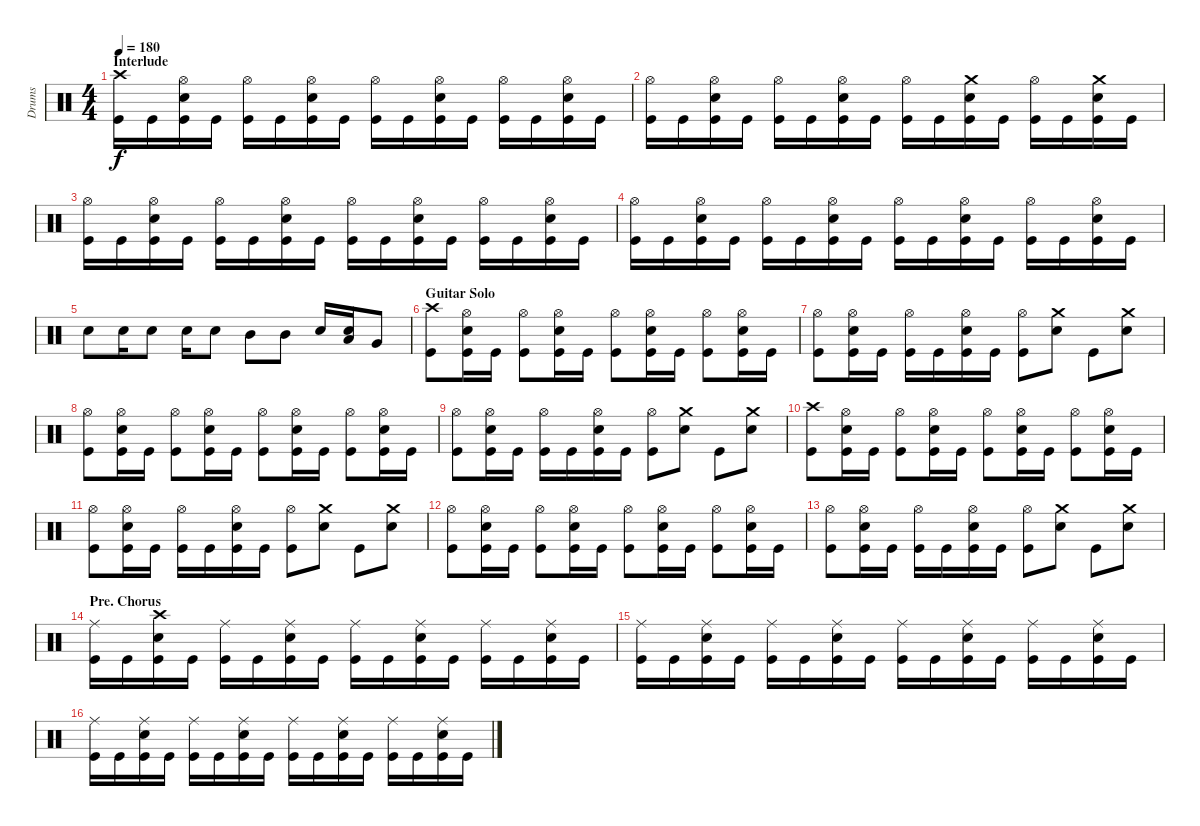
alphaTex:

\track ("Drums" "Drums") {instrument percussion}
\staff {score}
\articulation defaults
\ts (4 4)
\section ("" "Interlude")
\tempo 180
\clef neutral
\ks c
("Crash high (hit)" "Kick (hit)").16{dy f} "Kick (hit)".16 ("Hi-Hat (open)" "Electric Snare (hit)" "Kick (hit)").16 "Kick (hit)".16 ("Hi-Hat (open)" "Kick (hit)").16 "Kick (hit)".16 ("Hi-Hat (open)" "Electric Snare (hit)" "Kick (hit)").16 "Kick (hit)".16 ("Hi-Hat (open)" "Kick (hit)").16 "Kick (hit)".16 ("Hi-Hat (open)" "Electric Snare (hit)" "Kick (hit)").16 "Kick (hit)".16 ("Hi-Hat (open)" "Kick (hit)").16 "Kick (hit)".16 ("Hi-Hat (open)" "Electric Snare (hit)" "Kick (hit)").16 "Kick (hit)".16 |
("Hi-Hat (open)" "Kick (hit)").16 "Kick (hit)".16 ("Hi-Hat (open)" "Electric Snare (hit)" "Kick (hit)").16 "Kick (hit)".16 ("Hi-Hat (open)" "Kick (hit)").16 "Kick (hit)".16 ("Hi-Hat (open)" "Electric Snare (hit)" "Kick (hit)").16 "Kick (hit)".16 ("Hi-Hat (open)" "Kick (hit)").16 "Kick (hit)".16 ("Crash medium (hit)" "Electric Snare (hit)" "Kick (hit)").16 "Kick (hit)".16 ("Hi-Hat (open)" "Kick (hit)").16 "Kick (hit)".16 ("Crash medium (hit)" "Electric Snare (hit)" "Kick (hit)").16 "Kick (hit)".16 |
("Hi-Hat (open)" "Kick (hit)").16 "Kick (hit)".16 ("Hi-Hat (open)" "Electric Snare (hit)" "Kick (hit)").16 "Kick (hit)".16 ("Hi-Hat (open)" "Kick (hit)").16 "Kick (hit)".16 ("Hi-Hat (open)" "Electric Snare (hit)" "Kick (hit)").16 "Kick (hit)".16 ("Hi-Hat (open)" "Kick (hit)").16 "Kick (hit)".16 ("Hi-Hat (open)" "Electric Snare (hit)" "Kick (hit)").16 "Kick (hit)".16 ("Hi-Hat (open)" "Kick (hit)").16 "Kick (hit)".16 ("Hi-Hat (open)" "Electric Snare (hit)" "Kick (hit)").16 "Kick (hit)".16 |
("Hi-Hat (open)" "Kick (hit)").16 "Kick (hit)".16 ("Hi-Hat (open)" "Electric Snare (hit)" "Kick (hit)").16 "Kick (hit)".16 ("Hi-Hat (open)" "Kick (hit)").16 "Kick (hit)".16 ("Hi-Hat (open)" "Electric Snare (hit)" "Kick (hit)").16 "Kick (hit)".16 ("Hi-Hat (open)" "Kick (hit)").16 "Kick (hit)".16 ("Hi-Hat (open)" "Electric Snare (hit)" "Kick (hit)").16 "Kick (hit)".16 ("Hi-Hat (open)" "Kick (hit)").16 "Kick (hit)".16 ("Hi-Hat (open)" "Electric Snare (hit)" "Kick (hit)").16 "Kick (hit)".16 |
"Electric Snare (hit)".8 "Electric Snare (hit)".16 "Electric Snare (hit)".8 "Electric Snare (hit)".16 "Electric Snare (hit)".8 "Mid Tom (hit)".8 "Mid Tom (hit)".8 "Electric Snare (hit)".16 ("Low Tom (hit)" "Electric Snare (hit)").16 "Very Low Tom (hit)".8 |
\section ("" "Guitar Solo")
("Crash high (hit)" "Kick (hit)").8 ("Hi-Hat (open)" "Electric Snare (hit)" "Kick (hit)").16 "Kick (hit)".16 ("Hi-Hat (open)" "Kick (hit)").8 ("Hi-Hat (open)" "Electric Snare (hit)" "Kick (hit)").16 "Kick (hit)".16 ("Hi-Hat (open)" "Kick (hit)").8 ("Hi-Hat (open)" "Electric Snare (hit)" "Kick (hit)").16 "Kick (hit)".16 ("Hi-Hat (open)" "Kick (hit)").8 ("Hi-Hat (open)" "Electric Snare (hit)" "Kick (hit)").16 "Kick (hit)".16 |
("Hi-Hat (open)" "Kick (hit)").8 ("Hi-Hat (open)" "Electric Snare (hit)" "Kick (hit)").16 "Kick (hit)".16 ("Hi-Hat (open)" "Kick (hit)").16 "Kick (hit)".16 ("Hi-Hat (open)" "Electric Snare (hit)" "Kick (hit)").16 "Kick (hit)".16 ("Hi-Hat (open)" "Kick (hit)").8 ("Crash medium (hit)" "Electric Snare (hit)").8 "Kick (hit)".8 ("Crash medium (hit)" "Electric Snare (hit)").8 |
("Hi-Hat (open)" "Kick (hit)").8 ("Hi-Hat (open)" "Electric Snare (hit)" "Kick (hit)").16 "Kick (hit)".16 ("Hi-Hat (open)" "Kick (hit)").8 ("Hi-Hat (open)" "Electric Snare (hit)" "Kick (hit)").16 "Kick (hit)".16 ("Hi-Hat (open)" "Kick (hit)").8 ("Hi-Hat (open)" "Electric Snare (hit)" "Kick (hit)").16 "Kick (hit)".16 ("Hi-Hat (open)" "Kick (hit)").8 ("Hi-Hat (open)" "Electric Snare (hit)" "Kick (hit)").16 "Kick (hit)".16 |
("Hi-Hat (open)" "Kick (hit)").8 ("Hi-Hat (open)" "Electric Snare (hit)" "Kick (hit)").16 "Kick (hit)".16 ("Hi-Hat (open)" "Kick (hit)").16 "Kick (hit)".16 ("Hi-Hat (open)" "Electric Snare (hit)" "Kick (hit)").16 "Kick (hit)".16 ("Hi-Hat (open)" "Kick (hit)").8 ("Crash medium (hit)" "Electric Snare (hit)").8 "Kick (hit)".8 ("Crash medium (hit)" "Electric Snare (hit)").8 |
("Crash high (hit)" "Kick (hit)").8 ("Hi-Hat (open)" "Electric Snare (hit)" "Kick (hit)").16 "Kick (hit)".16 ("Hi-Hat (open)" "Kick (hit)").8 ("Hi-Hat (open)" "Electric Snare (hit)" "Kick (hit)").16 "Kick (hit)".16 ("Hi-Hat (open)" "Kick (hit)").8 ("Hi-Hat (open)" "Electric Snare (hit)" "Kick (hit)").16 "Kick (hit)".16 ("Hi-Hat (open)" "Kick (hit)").8 ("Hi-Hat (open)" "Electric Snare (hit)" "Kick (hit)").16 "Kick (hit)".16 |
("Hi-Hat (open)" "Kick (hit)").8 ("Hi-Hat (open)" "Electric Snare (hit)" "Kick (hit)").16 "Kick (hit)".16 ("Hi-Hat (open)" "Kick (hit)").16 "Kick (hit)".16 ("Hi-Hat (open)" "Electric Snare (hit)" "Kick (hit)").16 "Kick (hit)".16 ("Hi-Hat (open)" "Kick (hit)").8 ("Crash medium (hit)" "Electric Snare (hit)").8 "Kick (hit)".8 ("Crash medium (hit)" "Electric Snare (hit)").8 |
("Hi-Hat (open)" "Kick (hit)").8 ("Hi-Hat (open)" "Electric Snare (hit)" "Kick (hit)").16 "Kick (hit)".16 ("Hi-Hat (open)" "Kick (hit)").8 ("Hi-Hat (open)" "Electric Snare (hit)" "Kick (hit)").16 "Kick (hit)".16 ("Hi-Hat (open)" "Kick (hit)").8 ("Hi-Hat (open)" "Electric Snare (hit)" "Kick (hit)").16 "Kick (hit)".16 ("Hi-Hat (open)" "Kick (hit)").8 ("Hi-Hat (open)" "Electric Snare (hit)" "Kick (hit)").16 "Kick (hit)".16 |
("Hi-Hat (open)" "Kick (hit)").8 ("Hi-Hat (open)" "Electric Snare (hit)" "Kick (hit)").16 "Kick (hit)".16 ("Hi-Hat (open)" "Kick (hit)").16 "Kick (hit)".16 ("Hi-Hat (open)" "Electric Snare (hit)" "Kick (hit)").16 "Kick (hit)".16 ("Hi-Hat (open)" "Kick (hit)").8 ("Crash medium (hit)" "Electric Snare (hit)").8 "Kick (hit)".8 ("Crash medium (hit)" "Electric Snare (hit)").8 |
\section ("" "Pre. Chorus")
("Ride (middle)" "Kick (hit)").16 "Kick (hit)".16 ("Crash high (hit)" "Electric Snare (hit)" "Kick (hit)").16 "Kick (hit)".16 ("Ride (middle)" "Kick (hit)").16 "Kick (hit)".16 ("Ride (middle)" "Electric Snare (hit)" "Kick (hit)").16 "Kick (hit)".16 ("Ride (middle)" "Kick (hit)").16 "Kick (hit)".16 ("Ride (middle)" "Electric Snare (hit)" "Kick (hit)").16 "Kick (hit)".16 ("Ride (middle)" "Kick (hit)").16 "Kick (hit)".16 ("Ride (middle)" "Electric Snare (hit)" "Kick (hit)").16 "Kick (hit)".16 |
("Ride (middle)" "Kick (hit)").16 "Kick (hit)".16 ("Ride (middle)" "Electric Snare (hit)" "Kick (hit)").16 "Kick (hit)".16 ("Ride (middle)" "Kick (hit)").16 "Kick (hit)".16 ("Ride (middle)" "Electric Snare (hit)" "Kick (hit)").16 "Kick (hit)".16 ("Ride (middle)" "Kick (hit)").16 "Kick (hit)".16 ("Ride (middle)" "Electric Snare (hit)" "Kick (hit)").16 "Kick (hit)".16 ("Ride (middle)" "Kick (hit)").16 "Kick (hit)".16 ("Ride (middle)" "Electric Snare (hit)" "Kick (hit)").16 "Kick (hit)".16 |
("Ride (middle)" "Kick (hit)").16 "Kick (hit)".16 ("Ride (middle)" "Electric Snare (hit)" "Kick (hit)").16 "Kick (hit)".16 ("Ride (middle)" "Kick (hit)").16 "Kick (hit)".16 ("Ride (middle)" "Electric Snare (hit)" "Kick (hit)").16 "Kick (hit)".16 ("Ride (middle)" "Kick (hit)").16 "Kick (hit)".16 ("Ride (middle)" "Electric Snare (hit)" "Kick (hit)").16 "Kick (hit)".16 ("Ride (middle)" "Kick (hit)").16 "Kick (hit)".16 ("Ride (middle)" "Electric Snare (hit)" "Kick (hit)").16 "Kick (hit)".16
